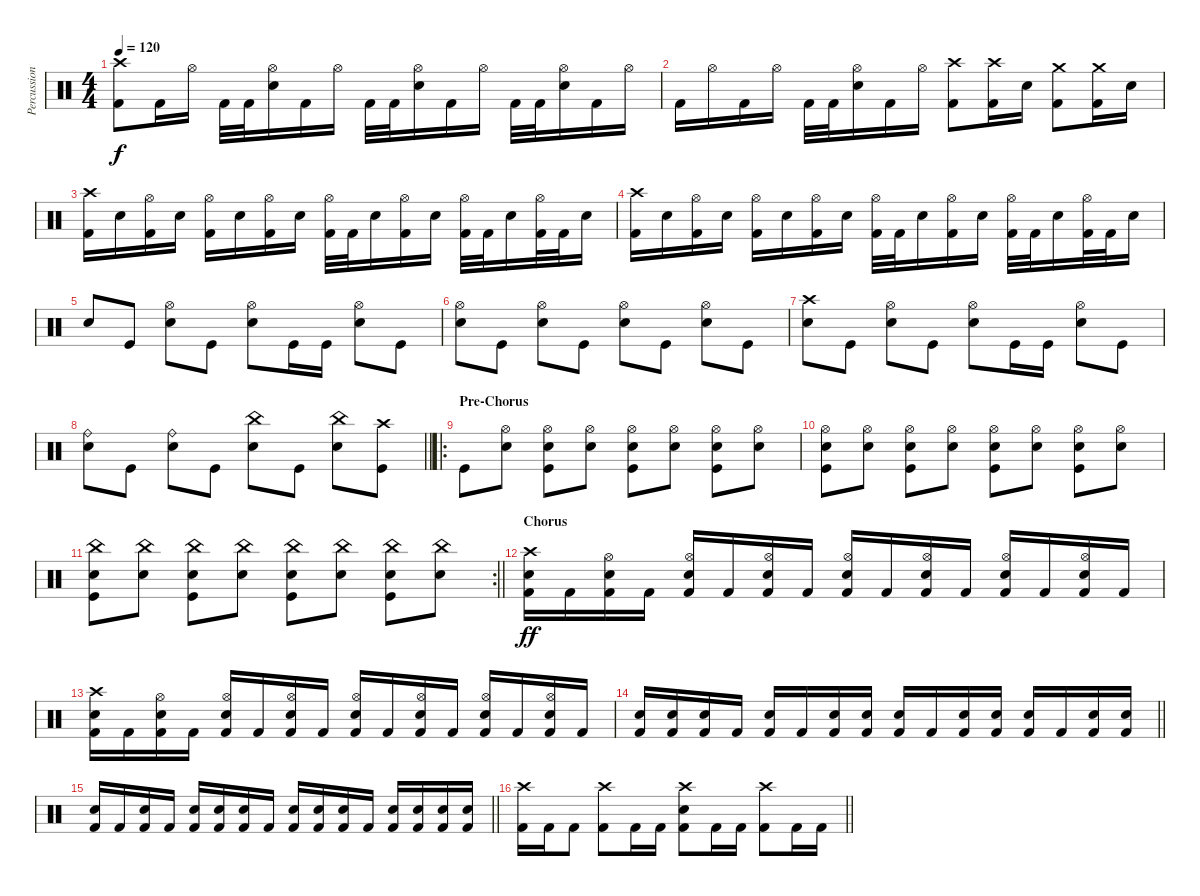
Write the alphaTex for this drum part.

\track ("Percussions" "Percussion") {instrument percussion}
\staff {score}
\articulation defaults
\ts (4 4)
\tempo 120
\clef neutral
\ks c
("Crash high (hit)" "Kick (hit) 2").8{dy f} "Kick (hit) 2".16 "Hi-Hat (open)".16 "Kick (hit) 2".32 "Kick (hit) 2".32 ("Hi-Hat (open)" "Snare (hit) 2").16 "Kick (hit) 2".16 "Hi-Hat (open)".16 "Kick (hit) 2".32 "Kick (hit) 2".32 ("Hi-Hat (open)" "Snare (hit) 2").16 "Kick (hit) 2".16 "Hi-Hat (open)".16 "Kick (hit) 2".32 "Kick (hit) 2".32 ("Hi-Hat (open)" "Snare (hit) 2").16 "Kick (hit) 2".16 "Hi-Hat (open)".16 |
"Kick (hit) 2".16 "Hi-Hat (open)".16 "Kick (hit) 2".16 "Hi-Hat (open)".16 "Kick (hit) 2".32 "Kick (hit) 2".32 ("Hi-Hat (open)" "Snare (hit) 2").16 "Kick (hit) 2".16 "Hi-Hat (open)".16 ("Crash high (hit)" "Kick (hit) 2").8 ("Crash high (hit)" "Kick (hit) 2").16 "Snare (hit) 2".16 ("Crash medium (hit)" "Kick (hit) 2").8 ("Crash medium (hit)" "Kick (hit) 2").16 "Snare (hit) 2".16 |
("Crash high (hit)" "Kick (hit) 2").16 "Snare (hit) 2".16 ("Hi-Hat (open)" "Kick (hit) 2").16 "Snare (hit) 2".16 ("Hi-Hat (open)" "Kick (hit) 2").16 "Snare (hit) 2".16 ("Hi-Hat (open)" "Kick (hit) 2").16 "Snare (hit) 2".16 ("Hi-Hat (open)" "Kick (hit) 2").32 "Kick (hit) 2".32 "Snare (hit) 2".16 ("Hi-Hat (open)" "Kick (hit) 2").16 "Snare (hit) 2".16 ("Hi-Hat (open)" "Kick (hit) 2").32 "Kick (hit) 2".32 "Snare (hit) 2".16 ("Hi-Hat (open)" "Kick (hit) 2").32 "Kick (hit) 2".32 "Snare (hit) 2".16 |
("Crash high (hit)" "Kick (hit) 2").16 "Snare (hit) 2".16 ("Hi-Hat (open)" "Kick (hit) 2").16 "Snare (hit) 2".16 ("Hi-Hat (open)" "Kick (hit) 2").16 "Snare (hit) 2".16 ("Hi-Hat (open)" "Kick (hit) 2").16 "Snare (hit) 2".16 ("Hi-Hat (open)" "Kick (hit) 2").32 "Kick (hit) 2".32 "Snare (hit) 2".16 ("Hi-Hat (open)" "Kick (hit) 2").16 "Snare (hit) 2".16 ("Hi-Hat (open)" "Kick (hit) 2").32 "Kick (hit) 2".32 "Snare (hit) 2".16 ("Hi-Hat (open)" "Kick (hit) 2").32 "Kick (hit) 2".32 "Snare (hit) 2".16 |
"Electric Snare (hit)".8 "Kick (hit)".8 ("Hi-Hat (open)" "Electric Snare (hit)").8 "Kick (hit)".8 ("Hi-Hat (open)" "Electric Snare (hit)").8 "Kick (hit)".16 "Kick (hit)".16 ("Hi-Hat (open)" "Electric Snare (hit)").8 "Kick (hit)".8 |
("Hi-Hat (open)" "Electric Snare (hit)").8 "Kick (hit)".8 ("Hi-Hat (open)" "Electric Snare (hit)").8 "Kick (hit)".8 ("Hi-Hat (open)" "Electric Snare (hit)").8 "Kick (hit)".8 ("Hi-Hat (open)" "Electric Snare (hit)").8 "Kick (hit)".8 |
("Crash high (hit)" "Electric Snare (hit)").8 "Kick (hit)".8 ("Hi-Hat (open)" "Electric Snare (hit)").8 "Kick (hit)".8 ("Hi-Hat (open)" "Electric Snare (hit)").8 "Kick (hit)".16 "Kick (hit)".16 ("Hi-Hat (open)" "Electric Snare (hit)").8 "Kick (hit)".8 |
\barLineRight lightlight
("Ride (bell)" "Electric Snare (hit)").8 "Kick (hit)".8 ("Ride (bell)" "Electric Snare (hit)").8 "Kick (hit)".8 ("China (hit)" "Electric Snare (hit)").8 "Kick (hit)".8 ("China (hit)" "Electric Snare (hit)").8 ("Crash high (hit)" "Kick (hit)").8 |
\ro
\section ("" "Pre-Chorus")
"Kick (hit)".8 ("Electric Snare (hit)" "Hi-Hat (open)").8 ("Electric Snare (hit)" "Hi-Hat (open)" "Kick (hit)").8 ("Electric Snare (hit)" "Hi-Hat (open)").8 ("Electric Snare (hit)" "Hi-Hat (open)" "Kick (hit)").8 ("Electric Snare (hit)" "Hi-Hat (open)").8 ("Electric Snare (hit)" "Hi-Hat (open)" "Kick (hit)").8 ("Electric Snare (hit)" "Hi-Hat (open)").8 |
("Electric Snare (hit)" "Hi-Hat (open)" "Kick (hit)").8 ("Electric Snare (hit)" "Hi-Hat (open)").8 ("Electric Snare (hit)" "Hi-Hat (open)" "Kick (hit)").8 ("Electric Snare (hit)" "Hi-Hat (open)").8 ("Electric Snare (hit)" "Hi-Hat (open)" "Kick (hit)").8 ("Electric Snare (hit)" "Hi-Hat (open)").8 ("Electric Snare (hit)" "Hi-Hat (open)" "Kick (hit)").8 ("Electric Snare (hit)" "Hi-Hat (open)").8 |
\rc 2
\barLineRight lightlight
("Electric Snare (hit)" "China (hit)" "Kick (hit)").8 ("Electric Snare (hit)" "China (hit)").8 ("Electric Snare (hit)" "China (hit)" "Kick (hit)").8 ("Electric Snare (hit)" "China (hit)").8 ("Electric Snare (hit)" "China (hit)" "Kick (hit)").8 ("Electric Snare (hit)" "China (hit)").8 ("Electric Snare (hit)" "China (hit)" "Kick (hit)").8 ("Electric Snare (hit)" "China (hit)").8 |
\section ("" "Chorus")
("Crash high (hit)" "Electric Snare (hit)" "Kick (hit) 2").16{dy ff} "Kick (hit) 2".16 ("Hi-Hat (open)" "Electric Snare (hit)" "Kick (hit) 2").16 "Kick (hit) 2".16 ("Hi-Hat (open)" "Electric Snare (hit)" "Kick (hit) 2").16 "Kick (hit) 2".16 ("Hi-Hat (open)" "Electric Snare (hit)" "Kick (hit) 2").16 "Kick (hit) 2".16 ("Hi-Hat (open)" "Electric Snare (hit)" "Kick (hit) 2").16 "Kick (hit) 2".16 ("Hi-Hat (open)" "Electric Snare (hit)" "Kick (hit) 2").16 "Kick (hit) 2".16 ("Hi-Hat (open)" "Electric Snare (hit)" "Kick (hit) 2").16 "Kick (hit) 2".16 ("Hi-Hat (open)" "Electric Snare (hit)" "Kick (hit) 2").16 "Kick (hit) 2".16 |
("Crash high (hit)" "Electric Snare (hit)" "Kick (hit) 2").16 "Kick (hit) 2".16 ("Hi-Hat (open)" "Electric Snare (hit)" "Kick (hit) 2").16 "Kick (hit) 2".16 ("Hi-Hat (open)" "Electric Snare (hit)" "Kick (hit) 2").16 "Kick (hit) 2".16 ("Hi-Hat (open)" "Electric Snare (hit)" "Kick (hit) 2").16 "Kick (hit) 2".16 ("Hi-Hat (open)" "Electric Snare (hit)" "Kick (hit) 2").16 "Kick (hit) 2".16 ("Hi-Hat (open)" "Electric Snare (hit)" "Kick (hit) 2").16 "Kick (hit) 2".16 ("Hi-Hat (open)" "Electric Snare (hit)" "Kick (hit) 2").16 "Kick (hit) 2".16 ("Hi-Hat (open)" "Electric Snare (hit)" "Kick (hit) 2").16 "Kick (hit) 2".16 |
\barLineRight lightlight
("Electric Snare (hit)" "Kick (hit) 2").16 ("Electric Snare (hit)" "Kick (hit) 2").16 ("Electric Snare (hit)" "Kick (hit) 2").16 "Kick (hit) 2".16 ("Electric Snare (hit)" "Kick (hit) 2").16 "Kick (hit) 2".16 ("Electric Snare (hit)" "Kick (hit) 2").16 ("Electric Snare (hit)" "Kick (hit) 2").16 ("Electric Snare (hit)" "Kick (hit) 2").16 "Kick (hit) 2".16 ("Electric Snare (hit)" "Kick (hit) 2").16 ("Electric Snare (hit)" "Kick (hit) 2").16 ("Electric Snare (hit)" "Kick (hit) 2").16 "Kick (hit) 2".16 ("Electric Snare (hit)" "Kick (hit) 2").16 ("Electric Snare (hit)" "Kick (hit) 2").16 |
\barLineRight lightlight
("Electric Snare (hit)" "Kick (hit) 2").16 "Kick (hit) 2".16 ("Electric Snare (hit)" "Kick (hit) 2").16 "Kick (hit) 2".16 ("Electric Snare (hit)" "Kick (hit) 2").16 ("Electric Snare (hit)" "Kick (hit) 2").16 ("Electric Snare (hit)" "Kick (hit) 2").16 "Kick (hit) 2".16 ("Electric Snare (hit)" "Kick (hit) 2").16 ("Electric Snare (hit)" "Kick (hit) 2").16 ("Electric Snare (hit)" "Kick (hit) 2").16 "Kick (hit) 2".16 ("Electric Snare (hit)" "Kick (hit) 2").16 ("Electric Snare (hit)" "Kick (hit) 2").16 ("Electric Snare (hit)" "Kick (hit) 2").16 ("Electric Snare (hit)" "Kick (hit) 2").16 |
\barLineRight lightlight
("Crash high (hit)" "Kick (hit) 2").16 "Kick (hit) 2".16 "Kick (hit) 2".8 ("Crash high (hit)" "Kick (hit) 2").8 "Kick (hit) 2".16 "Kick (hit) 2".16 ("Crash high (hit)" "Electric Snare (hit)" "Kick (hit) 2").8 "Kick (hit) 2".16 "Kick (hit) 2".16 ("Crash high (hit)" "Kick (hit) 2").8 "Kick (hit) 2".16 "Kick (hit) 2".16
